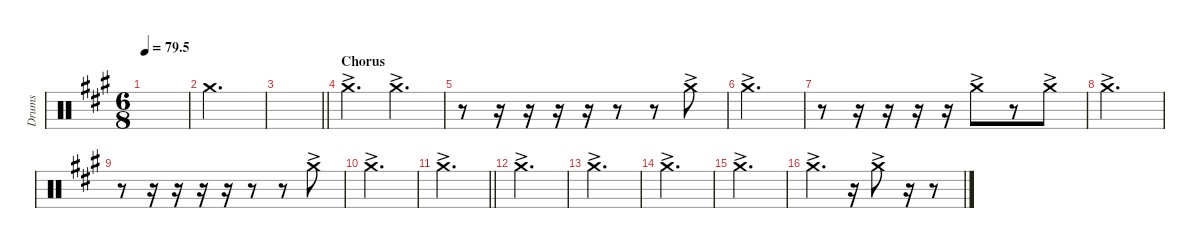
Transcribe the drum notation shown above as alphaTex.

\defaultSystemsLayout 4
\hideDynamics
\bracketExtendMode nobrackets
\otherSystemsTrackNameOrientation horizontal
\track ("Right crash" "Drums") {instrument percussion}
\staff {score}
\articulation defaults
\ts (6 8)
\tempo
79.5
\accidentals auto
\clef neutral
\ottava regular
\simile none
\scale
0.333333
\ks a
|
\scale
0.333333 "Crash medium (hit)"{acc forcenatural}.2{d} |
\scale
0.333333
\barLineRight lightlight
|
\section ("" "Chorus")
\scale
0.333333 "Crash medium (hit)"{ac acc forcenatural}.4{d} "Crash medium (hit)"{ac acc forcenatural}.4{d} |
\scale
0.333333 r.8 r.16 r.16 r.16 r.16 r.8 r.8 "Crash medium (hit)"{ac acc forcenatural}.8 |
\scale
0.333333 "Crash medium (hit)"{ac acc forcenatural}.2{d} |
\scale
0.333333 r.8 r.16 r.16 r.16 r.16 "Crash medium (hit)"{ac acc forcenatural}.8 r.8 "Crash medium (hit)"{ac acc forcenatural}.8 |
\scale
0.333333 "Crash medium (hit)"{ac acc forcenatural}.2{d} |
\scale
0.333333 r.8 r.16 r.16 r.16 r.16 r.8 r.8 "Crash medium (hit)"{ac acc forcenatural}.8 |
\scale
0.333333 "Crash medium (hit)"{ac acc forcenatural}.2{d} |
\scale
0.333333
\barLineRight lightlight "Crash medium (hit)"{ac acc forcenatural}.2{d}
|
\scale
0.333333 "Crash medium (hit)"{ac acc forcenatural}.2{d} |
\scale
0.333333 "Crash medium (hit)"{ac acc forcenatural}.2{d} |
\scale
0.333333 "Crash medium (hit)"{ac acc forcenatural}.2{d} |
\scale
0.333333 "Crash medium (hit)"{ac acc forcenatural}.2{d} |
\scale
0.333333 "Crash medium (hit)"{ac acc forcenatural}.4{d} r.16 "Crash medium (hit)"{ac acc forcenatural}.8 r.16 r.8
